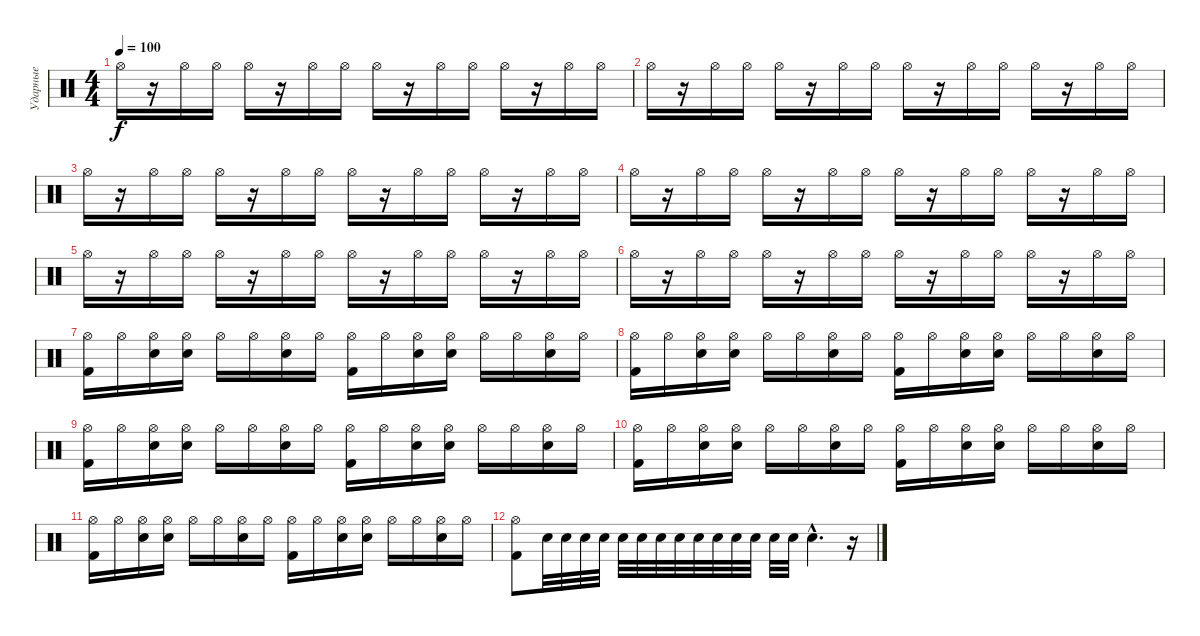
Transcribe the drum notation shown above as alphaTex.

\track ("Ударные" "Ударные") {instrument percussion}
\staff {score}
\articulation defaults
\ts (4 4)
\tempo 100
\clef neutral
\ks c "Hi-Hat (open)".16{dy f}
r.16 "Hi-Hat (open)".16 "Hi-Hat (open)".16 "Hi-Hat (open)".16 r.16 "Hi-Hat (open)".16 "Hi-Hat (open)".16 "Hi-Hat (open)".16 r.16 "Hi-Hat (open)".16 "Hi-Hat (open)".16 "Hi-Hat (open)".16 r.16 "Hi-Hat (open)".16 "Hi-Hat (open)".16 |
"Hi-Hat (open)".16 r.16 "Hi-Hat (open)".16 "Hi-Hat (open)".16 "Hi-Hat (open)".16 r.16 "Hi-Hat (open)".16 "Hi-Hat (open)".16 "Hi-Hat (open)".16 r.16 "Hi-Hat (open)".16 "Hi-Hat (open)".16 "Hi-Hat (open)".16 r.16 "Hi-Hat (open)".16 "Hi-Hat (open)".16 |
"Hi-Hat (open)".16 r.16 "Hi-Hat (open)".16 "Hi-Hat (open)".16 "Hi-Hat (open)".16 r.16 "Hi-Hat (open)".16 "Hi-Hat (open)".16 "Hi-Hat (open)".16 r.16 "Hi-Hat (open)".16 "Hi-Hat (open)".16 "Hi-Hat (open)".16 r.16 "Hi-Hat (open)".16 "Hi-Hat (open)".16 |
"Hi-Hat (open)".16 r.16 "Hi-Hat (open)".16 "Hi-Hat (open)".16 "Hi-Hat (open)".16 r.16 "Hi-Hat (open)".16 "Hi-Hat (open)".16 "Hi-Hat (open)".16 r.16 "Hi-Hat (open)".16 "Hi-Hat (open)".16 "Hi-Hat (open)".16 r.16 "Hi-Hat (open)".16 "Hi-Hat (open)".16 |
"Hi-Hat (open)".16 r.16 "Hi-Hat (open)".16 "Hi-Hat (open)".16 "Hi-Hat (open)".16 r.16 "Hi-Hat (open)".16 "Hi-Hat (open)".16 "Hi-Hat (open)".16 r.16 "Hi-Hat (open)".16 "Hi-Hat (open)".16 "Hi-Hat (open)".16 r.16 "Hi-Hat (open)".16 "Hi-Hat (open)".16 |
"Hi-Hat (open)".16 r.16 "Hi-Hat (open)".16 "Hi-Hat (open)".16 "Hi-Hat (open)".16 r.16 "Hi-Hat (open)".16 "Hi-Hat (open)".16 "Hi-Hat (open)".16 r.16 "Hi-Hat (open)".16 "Hi-Hat (open)".16 "Hi-Hat (open)".16 r.16 "Hi-Hat (open)".16 "Hi-Hat (open)".16 |
("Hi-Hat (open)" "Kick (hit) 2").16 "Hi-Hat (open)".16 ("Hi-Hat (open)" "Snare (hit) 2").16 ("Hi-Hat (open)" "Snare (hit) 2").16 "Hi-Hat (open)".16 "Hi-Hat (open)".16 ("Hi-Hat (open)" "Snare (hit) 2").16 "Hi-Hat (open)".16 ("Hi-Hat (open)" "Kick (hit) 2").16 "Hi-Hat (open)".16 ("Hi-Hat (open)" "Snare (hit) 2").16 ("Hi-Hat (open)" "Snare (hit) 2").16 "Hi-Hat (open)".16 "Hi-Hat (open)".16 ("Hi-Hat (open)" "Snare (hit) 2").16 "Hi-Hat (open)".16 |
("Hi-Hat (open)" "Kick (hit) 2").16 "Hi-Hat (open)".16 ("Hi-Hat (open)" "Snare (hit) 2").16 ("Hi-Hat (open)" "Snare (hit) 2").16 "Hi-Hat (open)".16 "Hi-Hat (open)".16 ("Hi-Hat (open)" "Snare (hit) 2").16 "Hi-Hat (open)".16 ("Hi-Hat (open)" "Kick (hit) 2").16 "Hi-Hat (open)".16 ("Hi-Hat (open)" "Snare (hit) 2").16 ("Hi-Hat (open)" "Snare (hit) 2").16 "Hi-Hat (open)".16 "Hi-Hat (open)".16 ("Hi-Hat (open)" "Snare (hit) 2").16 "Hi-Hat (open)".16 |
("Hi-Hat (open)" "Kick (hit) 2").16 "Hi-Hat (open)".16 ("Hi-Hat (open)" "Snare (hit) 2").16 ("Hi-Hat (open)" "Snare (hit) 2").16 "Hi-Hat (open)".16 "Hi-Hat (open)".16 ("Hi-Hat (open)" "Snare (hit) 2").16 "Hi-Hat (open)".16 ("Hi-Hat (open)" "Kick (hit) 2").16 "Hi-Hat (open)".16 ("Hi-Hat (open)" "Snare (hit) 2").16 ("Hi-Hat (open)" "Snare (hit) 2").16 "Hi-Hat (open)".16 "Hi-Hat (open)".16 ("Hi-Hat (open)" "Snare (hit) 2").16 "Hi-Hat (open)".16 |
("Hi-Hat (open)" "Kick (hit) 2").16 "Hi-Hat (open)".16 ("Hi-Hat (open)" "Snare (hit) 2").16 ("Hi-Hat (open)" "Snare (hit) 2").16 "Hi-Hat (open)".16 "Hi-Hat (open)".16 ("Hi-Hat (open)" "Snare (hit) 2").16 "Hi-Hat (open)".16 ("Hi-Hat (open)" "Kick (hit) 2").16 "Hi-Hat (open)".16 ("Hi-Hat (open)" "Snare (hit) 2").16 ("Hi-Hat (open)" "Snare (hit) 2").16 "Hi-Hat (open)".16 "Hi-Hat (open)".16 ("Hi-Hat (open)" "Snare (hit) 2").16 "Hi-Hat (open)".16 |
("Hi-Hat (open)" "Kick (hit) 2").16 "Hi-Hat (open)".16 ("Hi-Hat (open)" "Snare (hit) 2").16 ("Hi-Hat (open)" "Snare (hit) 2").16 "Hi-Hat (open)".16 "Hi-Hat (open)".16 ("Hi-Hat (open)" "Snare (hit) 2").16 "Hi-Hat (open)".16 ("Hi-Hat (open)" "Kick (hit) 2").16 "Hi-Hat (open)".16 ("Hi-Hat (open)" "Snare (hit) 2").16 ("Hi-Hat (open)" "Snare (hit) 2").16 "Hi-Hat (open)".16 "Hi-Hat (open)".16 ("Hi-Hat (open)" "Snare (hit) 2").16 "Hi-Hat (open)".16 |
("Hi-Hat (open)" "Kick (hit) 2").8 "Snare (hit) 2".32 "Snare (hit) 2".32 "Snare (hit) 2".32 "Snare (hit) 2".32 "Snare (hit) 2".32 "Snare (hit) 2".32 "Snare (hit) 2".32 "Snare (hit) 2".32 "Snare (hit) 2".32 "Snare (hit) 2".32 "Snare (hit) 2".32 "Snare (hit) 2".32 "Snare (hit) 2".32 "Snare (hit) 2".32 "Snare (hit) 2"{hac}.4{d} r.16
